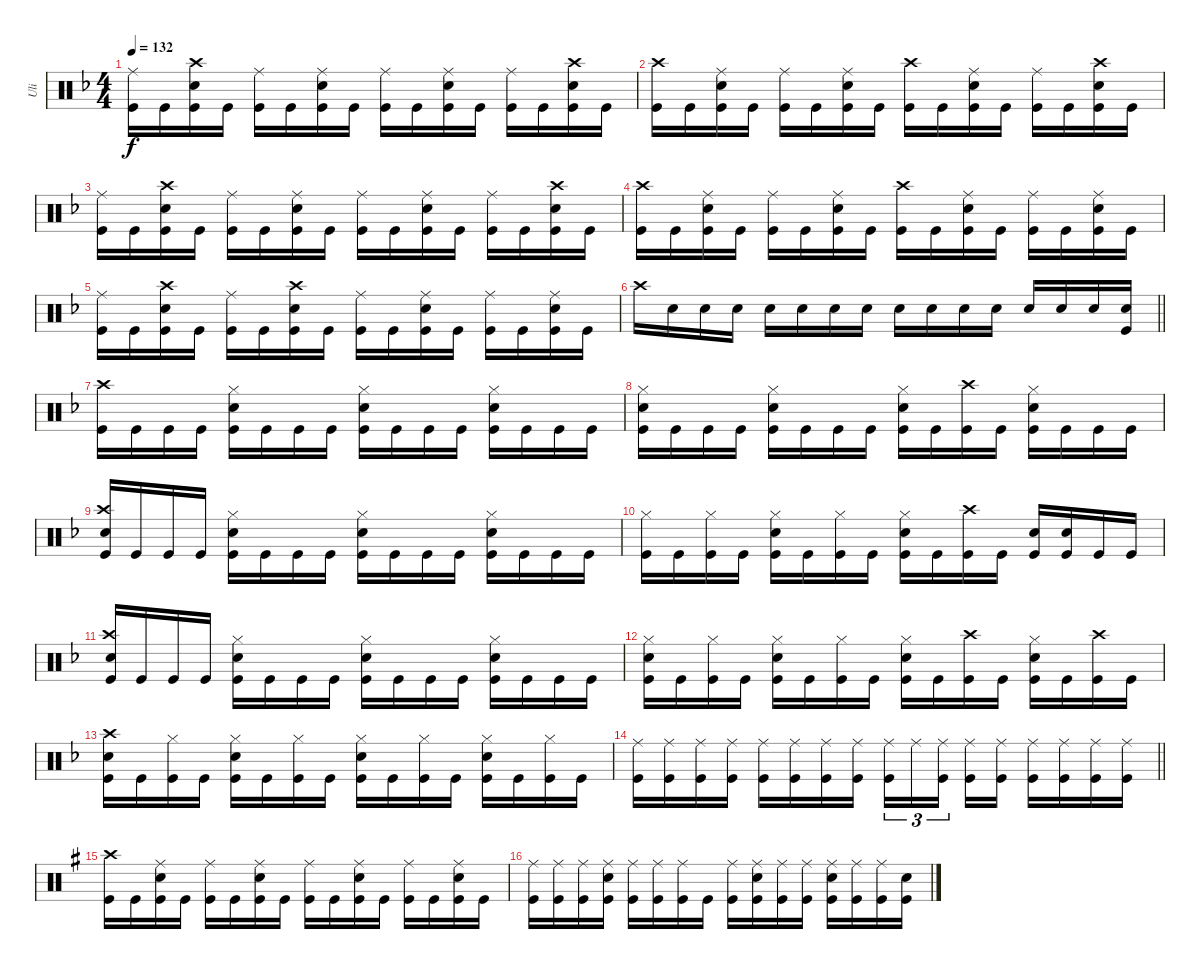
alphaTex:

\track ("Uli" "Uli") {instrument percussion}
\staff {score}
\articulation defaults
\ts (4 4)
\tempo 132
\clef neutral
\ks dminor
("Ride (middle)" "Kick (hit)").16{dy f} "Kick (hit)".16 ("Crash high (hit)" "Snare (hit) 2" "Kick (hit)").16 "Kick (hit)".16 ("Ride (middle)" "Kick (hit)").16 "Kick (hit)".16 ("Ride (middle)" "Snare (hit) 2" "Kick (hit)").16 "Kick (hit)".16 ("Ride (middle)" "Kick (hit)").16 "Kick (hit)".16 ("Ride (middle)" "Snare (hit) 2" "Kick (hit)").16 "Kick (hit)".16 ("Ride (middle)" "Kick (hit)").16 "Kick (hit)".16 ("Crash high (hit)" "Snare (hit) 2" "Kick (hit)").16 "Kick (hit)".16 |
("Crash high (hit)" "Kick (hit)").16 "Kick (hit)".16 ("Ride (middle)" "Snare (hit) 2" "Kick (hit)").16 "Kick (hit)".16 ("Ride (middle)" "Kick (hit)").16 "Kick (hit)".16 ("Ride (middle)" "Snare (hit) 2" "Kick (hit)").16 "Kick (hit)".16 ("Crash high (hit)" "Kick (hit)").16 "Kick (hit)".16 ("Ride (middle)" "Snare (hit) 2" "Kick (hit)").16 "Kick (hit)".16 ("Ride (middle)" "Kick (hit)").16 "Kick (hit)".16 ("Crash high (hit)" "Snare (hit) 2" "Kick (hit)").16 "Kick (hit)".16 |
("Ride (middle)" "Kick (hit)").16 "Kick (hit)".16 ("Crash high (hit)" "Snare (hit) 2" "Kick (hit)").16 "Kick (hit)".16 ("Ride (middle)" "Kick (hit)").16 "Kick (hit)".16 ("Ride (middle)" "Snare (hit) 2" "Kick (hit)").16 "Kick (hit)".16 ("Ride (middle)" "Kick (hit)").16 "Kick (hit)".16 ("Ride (middle)" "Snare (hit) 2" "Kick (hit)").16 "Kick (hit)".16 ("Ride (middle)" "Kick (hit)").16 "Kick (hit)".16 ("Crash high (hit)" "Snare (hit) 2" "Kick (hit)").16 "Kick (hit)".16 |
("Crash high (hit)" "Kick (hit)").16 "Kick (hit)".16 ("Ride (middle)" "Snare (hit) 2" "Kick (hit)").16 "Kick (hit)".16 ("Ride (middle)" "Kick (hit)").16 "Kick (hit)".16 ("Ride (middle)" "Snare (hit) 2" "Kick (hit)").16 "Kick (hit)".16 ("Crash high (hit)" "Kick (hit)").16 "Kick (hit)".16 ("Ride (middle)" "Snare (hit) 2" "Kick (hit)").16 "Kick (hit)".16 ("Ride (middle)" "Kick (hit)").16 "Kick (hit)".16 ("Ride (middle)" "Snare (hit) 2" "Kick (hit)").16 "Kick (hit)".16 |
("Ride (middle)" "Kick (hit)").16 "Kick (hit)".16 ("Crash high (hit)" "Snare (hit) 2" "Kick (hit)").16 "Kick (hit)".16 ("Ride (middle)" "Kick (hit)").16 "Kick (hit)".16 ("Crash high (hit)" "Snare (hit) 2" "Kick (hit)").16 "Kick (hit)".16 ("Ride (middle)" "Kick (hit)").16 "Kick (hit)".16 ("Ride (middle)" "Snare (hit) 2" "Kick (hit)").16 "Kick (hit)".16 ("Ride (middle)" "Kick (hit)").16 "Kick (hit)".16 ("Ride (middle)" "Snare (hit) 2" "Kick (hit)").16 "Kick (hit)".16 |
\barLineRight lightlight "Crash high (hit)".16 "Snare (hit) 2".16 "Snare (hit) 2".16 "Snare (hit) 2".16 "Snare (hit) 2".16 "Snare (hit) 2".16 "Snare (hit) 2".16 "Snare (hit) 2".16 "Snare (hit) 2".16 "Snare (hit) 2".16 "Snare (hit) 2".16 "Snare (hit) 2".16 "Snare (hit) 2".16 "Snare (hit) 2".16 "Snare (hit) 2".16
("Snare (hit) 2" "Kick (hit)").16 |
("Crash high (hit)" "Kick (hit)").16 "Kick (hit)".16 "Kick (hit)".16 "Kick (hit)".16 ("Hi-Hat (closed)" "Snare (hit) 2" "Kick (hit)").16 "Kick (hit)".16 "Kick (hit)".16 "Kick (hit)".16 ("Hi-Hat (closed)" "Snare (hit) 2" "Kick (hit)").16 "Kick (hit)".16 "Kick (hit)".16 "Kick (hit)".16 ("Hi-Hat (closed)" "Snare (hit) 2" "Kick (hit)").16 "Kick (hit)".16 "Kick (hit)".16 "Kick (hit)".16 |
("Hi-Hat (closed)" "Snare (hit) 2" "Kick (hit)").16 "Kick (hit)".16 "Kick (hit)".16 "Kick (hit)".16 ("Hi-Hat (closed)" "Snare (hit) 2" "Kick (hit)").16 "Kick (hit)".16 "Kick (hit)".16 "Kick (hit)".16 ("Hi-Hat (closed)" "Snare (hit) 2" "Kick (hit)").16 "Kick (hit)".16 ("Crash high (hit)" "Kick (hit)").16 "Kick (hit)".16 ("Hi-Hat (closed)" "Snare (hit) 2" "Kick (hit)").16 "Kick (hit)".16 "Kick (hit)".16 "Kick (hit)".16 |
("Crash high (hit)" "Snare (hit) 2" "Kick (hit)").16 "Kick (hit)".16 "Kick (hit)".16 "Kick (hit)".16 ("Hi-Hat (closed)" "Snare (hit) 2" "Kick (hit)").16 "Kick (hit)".16 "Kick (hit)".16 "Kick (hit)".16 ("Hi-Hat (closed)" "Snare (hit) 2" "Kick (hit)").16 "Kick (hit)".16 "Kick (hit)".16 "Kick (hit)".16 ("Hi-Hat (closed)" "Snare (hit) 2" "Kick (hit)").16 "Kick (hit)".16 "Kick (hit)".16 "Kick (hit)".16 |
("Hi-Hat (closed)" "Kick (hit)").16 "Kick (hit)".16 ("Hi-Hat (closed)" "Kick (hit)").16 "Kick (hit)".16 ("Hi-Hat (closed)" "Snare (hit) 2" "Kick (hit)").16 "Kick (hit)".16 ("Hi-Hat (closed)" "Kick (hit)").16 "Kick (hit)".16 ("Hi-Hat (closed)" "Snare (hit) 2" "Kick (hit)").16 "Kick (hit)".16 ("Crash high (hit)" "Kick (hit)").16 "Kick (hit)".16 ("Snare (hit) 2" "Kick (hit)").16 ("Snare (hit) 2" "Kick (hit)").16 "Kick (hit)".16 "Kick (hit)".16 |
("Crash high (hit)" "Snare (hit) 2" "Kick (hit)").16 "Kick (hit)".16 "Kick (hit)".16 "Kick (hit)".16 ("Hi-Hat (closed)" "Snare (hit) 2" "Kick (hit)").16 "Kick (hit)".16 "Kick (hit)".16 "Kick (hit)".16 ("Hi-Hat (closed)" "Snare (hit) 2" "Kick (hit)").16 "Kick (hit)".16 "Kick (hit)".16 "Kick (hit)".16 ("Hi-Hat (closed)" "Snare (hit) 2" "Kick (hit)").16 "Kick (hit)".16 "Kick (hit)".16 "Kick (hit)".16 |
("Hi-Hat (closed)" "Snare (hit) 2" "Kick (hit)").16 "Kick (hit)".16 ("Hi-Hat (closed)" "Kick (hit)").16 "Kick (hit)".16 ("Hi-Hat (closed)" "Snare (hit) 2" "Kick (hit)").16 "Kick (hit)".16 ("Hi-Hat (closed)" "Kick (hit)").16 "Kick (hit)".16 ("Hi-Hat (closed)" "Snare (hit) 2" "Kick (hit)").16 "Kick (hit)".16 ("Crash high (hit)" "Kick (hit)").16 "Kick (hit)".16 ("Hi-Hat (closed)" "Snare (hit) 2" "Kick (hit)").16 "Kick (hit)".16 ("Crash high (hit)" "Kick (hit)").16 "Kick (hit)".16 |
("Crash high (hit)" "Snare (hit) 2" "Kick (hit)").16 "Kick (hit)".16 ("Hi-Hat (closed)" "Kick (hit)").16 "Kick (hit)".16 ("Hi-Hat (closed)" "Snare (hit) 2" "Kick (hit)").16 "Kick (hit)".16 ("Hi-Hat (closed)" "Kick (hit)").16 "Kick (hit)".16 ("Hi-Hat (closed)" "Snare (hit) 2" "Kick (hit)").16 "Kick (hit)".16 ("Hi-Hat (closed)" "Kick (hit)").16 "Kick (hit)".16 ("Hi-Hat (closed)" "Snare (hit) 2" "Kick (hit)").16 "Kick (hit)".16 ("Hi-Hat (closed)" "Kick (hit)").16 "Kick (hit)".16 |
\barLineRight lightlight
("Ride (middle)" "Kick (hit)").16 ("Ride (middle)" "Kick (hit)").16 ("Ride (middle)" "Kick (hit)").16 ("Ride (middle)" "Kick (hit)").16 ("Ride (middle)" "Kick (hit)").16 ("Ride (middle)" "Kick (hit)").16 ("Ride (middle)" "Kick (hit)").16 ("Ride (middle)" "Kick (hit)").16 ("Ride (middle)" "Kick (hit)").16{tu (3 2)} "Ride (middle)".16{tu (3 2)} ("Ride (middle)" "Kick (hit)").16{tu (3 2) beam splitsecondary} ("Ride (middle)" "Kick (hit)").16 ("Ride (middle)" "Kick (hit)").16 ("Ride (middle)" "Kick (hit)").16 ("Ride (middle)" "Kick (hit)").16 ("Ride (middle)" "Kick (hit)").16 ("Ride (middle)" "Kick (hit)").16 |
\ks eminor
("Crash high (hit)" "Kick (hit)").16 "Kick (hit)".16 ("Ride (middle)" "Snare (hit) 2" "Kick (hit)").16 "Kick (hit)".16 ("Ride (middle)" "Kick (hit)").16 "Kick (hit)".16 ("Ride (middle)" "Snare (hit) 2" "Kick (hit)").16 "Kick (hit)".16 ("Ride (middle)" "Kick (hit)").16 "Kick (hit)".16 ("Ride (middle)" "Snare (hit) 2" "Kick (hit)").16 "Kick (hit)".16 ("Ride (middle)" "Kick (hit)").16 "Kick (hit)".16 ("Ride (middle)" "Snare (hit) 2" "Kick (hit)").16 "Kick (hit)".16 |
("Ride (middle)" "Kick (hit)").16 ("Ride (middle)" "Kick (hit)").16 ("Ride (middle)" "Kick (hit)").16 ("Ride (middle)" "Snare (hit) 2" "Kick (hit)").16 ("Ride (middle)" "Kick (hit)").16 ("Ride (middle)" "Kick (hit)").16 ("Ride (middle)" "Kick (hit)").16 "Kick (hit)".16 ("Ride (middle)" "Kick (hit)").16 ("Ride (middle)" "Snare (hit) 2" "Kick (hit)").16 ("Ride (middle)" "Kick (hit)").16 ("Ride (middle)" "Kick (hit)").16 ("Ride (middle)" "Snare (hit) 2" "Kick (hit)").16 ("Ride (middle)" "Kick (hit)").16 ("Ride (middle)" "Kick (hit)").16 ("Snare (hit) 2" "Kick (hit)").16
